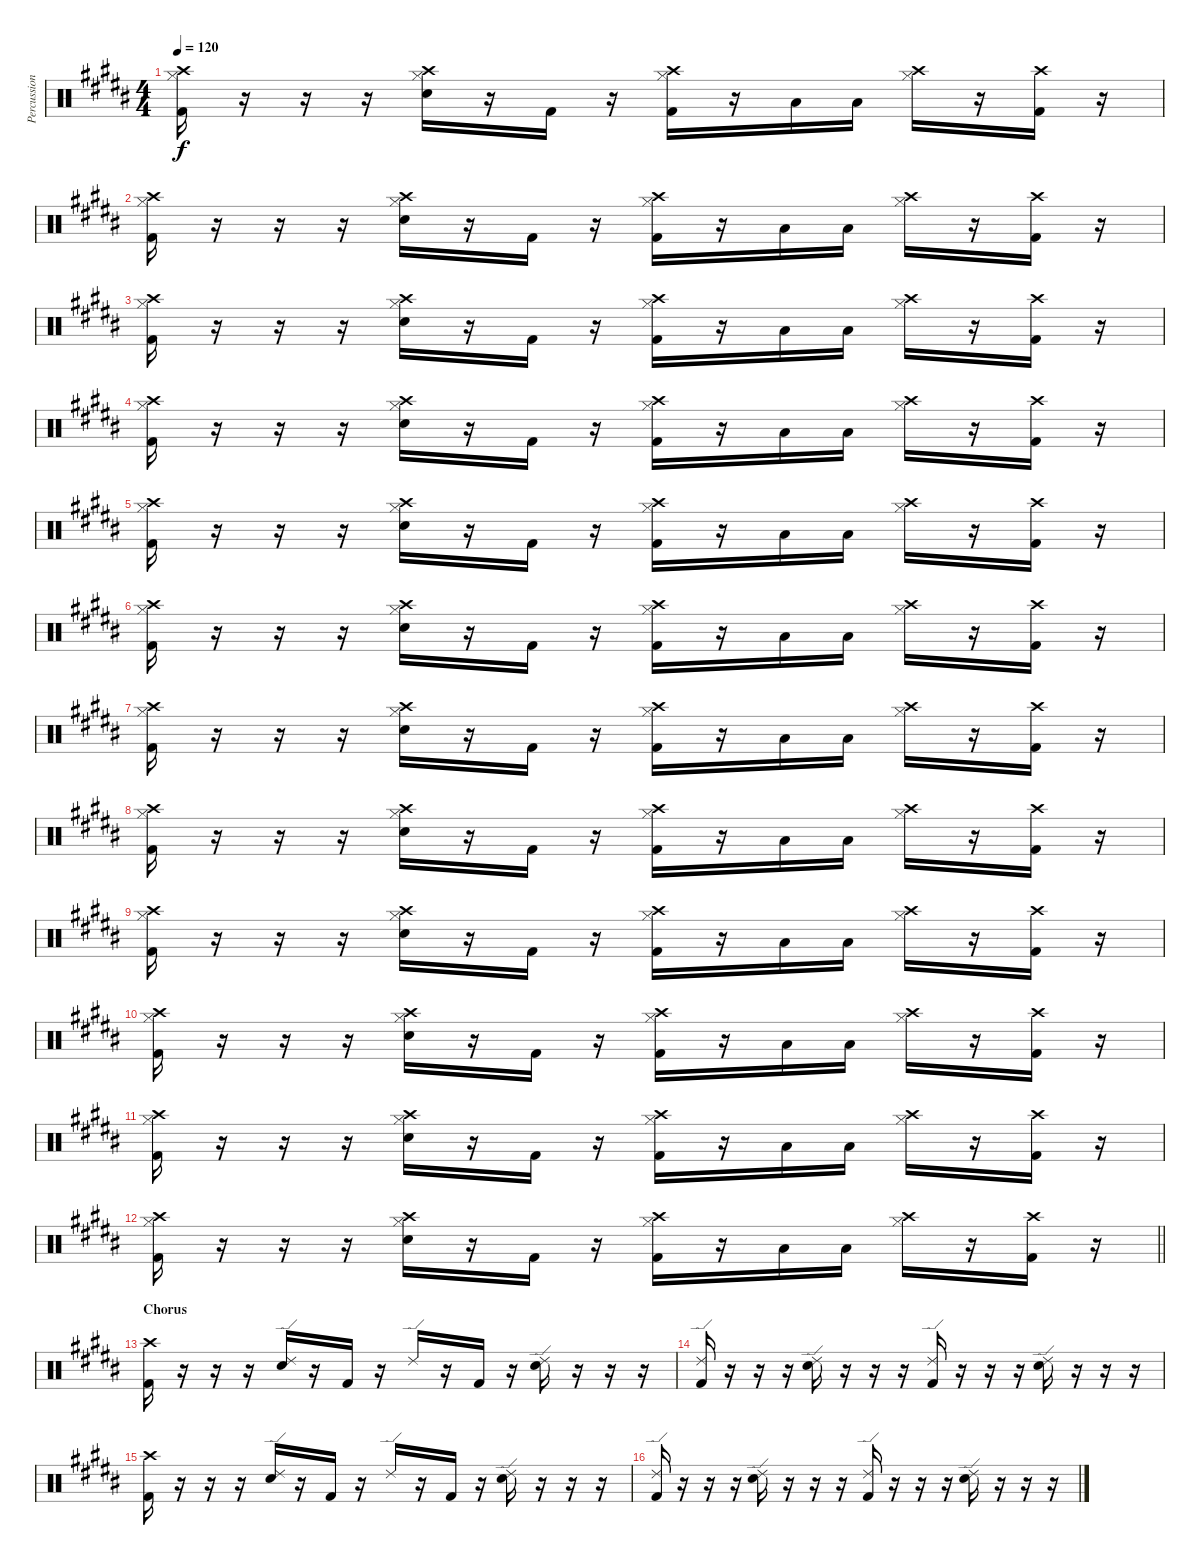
\track ("Percussion" "Percussion") {instrument percussion}
\staff {score}
\articulation defaults
\ts (4 4)
\tempo 120
\clef neutral
\ks b
("Crash high (hit)" "Hi-Hat (closed)" "Kick (hit) 2").16{dy f} r.16 r.16 r.16 ("Crash high (hit)" "Hi-Hat (closed)" "Electric Snare (hit)").16 r.16 "Kick (hit) 2".16 r.16 ("Crash high (hit)" "Hi-Hat (closed)" "Kick (hit) 2").16 r.16 "Low Tom (hit)".16 "Low Tom (hit)".16 ("Crash high (hit)" "Hi-Hat (closed)").16 r.16 ("Crash high (hit)" "Kick (hit) 2").16 r.16 |
("Crash high (hit)" "Hi-Hat (closed)" "Kick (hit) 2").16 r.16 r.16 r.16 ("Crash high (hit)" "Hi-Hat (closed)" "Electric Snare (hit)").16 r.16 "Kick (hit) 2".16 r.16 ("Crash high (hit)" "Hi-Hat (closed)" "Kick (hit) 2").16 r.16 "Low Tom (hit)".16 "Low Tom (hit)".16 ("Crash high (hit)" "Hi-Hat (closed)").16 r.16 ("Crash high (hit)" "Kick (hit) 2").16 r.16 |
("Crash high (hit)" "Hi-Hat (closed)" "Kick (hit) 2").16 r.16 r.16 r.16 ("Crash high (hit)" "Hi-Hat (closed)" "Electric Snare (hit)").16 r.16 "Kick (hit) 2".16 r.16 ("Crash high (hit)" "Hi-Hat (closed)" "Kick (hit) 2").16 r.16 "Low Tom (hit)".16 "Low Tom (hit)".16 ("Crash high (hit)" "Hi-Hat (closed)").16 r.16 ("Crash high (hit)" "Kick (hit) 2").16 r.16 |
("Crash high (hit)" "Hi-Hat (closed)" "Kick (hit) 2").16 r.16 r.16 r.16 ("Crash high (hit)" "Hi-Hat (closed)" "Electric Snare (hit)").16 r.16 "Kick (hit) 2".16 r.16 ("Crash high (hit)" "Hi-Hat (closed)" "Kick (hit) 2").16 r.16 "Low Tom (hit)".16 "Low Tom (hit)".16 ("Crash high (hit)" "Hi-Hat (closed)").16 r.16 ("Crash high (hit)" "Kick (hit) 2").16 r.16 |
("Crash high (hit)" "Hi-Hat (closed)" "Kick (hit) 2").16 r.16 r.16 r.16 ("Crash high (hit)" "Hi-Hat (closed)" "Electric Snare (hit)").16 r.16 "Kick (hit) 2".16 r.16 ("Crash high (hit)" "Hi-Hat (closed)" "Kick (hit) 2").16 r.16 "Low Tom (hit)".16 "Low Tom (hit)".16 ("Crash high (hit)" "Hi-Hat (closed)").16 r.16 ("Crash high (hit)" "Kick (hit) 2").16 r.16 |
("Crash high (hit)" "Hi-Hat (closed)" "Kick (hit) 2").16 r.16 r.16 r.16 ("Crash high (hit)" "Hi-Hat (closed)" "Electric Snare (hit)").16 r.16 "Kick (hit) 2".16 r.16 ("Crash high (hit)" "Hi-Hat (closed)" "Kick (hit) 2").16 r.16 "Low Tom (hit)".16 "Low Tom (hit)".16 ("Crash high (hit)" "Hi-Hat (closed)").16 r.16 ("Crash high (hit)" "Kick (hit) 2").16 r.16 |
("Crash high (hit)" "Hi-Hat (closed)" "Kick (hit) 2").16 r.16 r.16 r.16 ("Crash high (hit)" "Hi-Hat (closed)" "Electric Snare (hit)").16 r.16 "Kick (hit) 2".16 r.16 ("Crash high (hit)" "Hi-Hat (closed)" "Kick (hit) 2").16 r.16 "Low Tom (hit)".16 "Low Tom (hit)".16 ("Crash high (hit)" "Hi-Hat (closed)").16 r.16 ("Crash high (hit)" "Kick (hit) 2").16 r.16 |
("Crash high (hit)" "Hi-Hat (closed)" "Kick (hit) 2").16 r.16 r.16 r.16 ("Crash high (hit)" "Hi-Hat (closed)" "Electric Snare (hit)").16 r.16 "Kick (hit) 2".16 r.16 ("Crash high (hit)" "Hi-Hat (closed)" "Kick (hit) 2").16 r.16 "Low Tom (hit)".16 "Low Tom (hit)".16 ("Crash high (hit)" "Hi-Hat (closed)").16 r.16 ("Crash high (hit)" "Kick (hit) 2").16 r.16 |
("Crash high (hit)" "Hi-Hat (closed)" "Kick (hit) 2").16 r.16 r.16 r.16 ("Crash high (hit)" "Hi-Hat (closed)" "Electric Snare (hit)").16 r.16 "Kick (hit) 2".16 r.16 ("Crash high (hit)" "Hi-Hat (closed)" "Kick (hit) 2").16 r.16 "Low Tom (hit)".16 "Low Tom (hit)".16 ("Crash high (hit)" "Hi-Hat (closed)").16 r.16 ("Crash high (hit)" "Kick (hit) 2").16 r.16 |
("Crash high (hit)" "Hi-Hat (closed)" "Kick (hit) 2").16 r.16 r.16 r.16 ("Crash high (hit)" "Hi-Hat (closed)" "Electric Snare (hit)").16 r.16 "Kick (hit) 2".16 r.16 ("Crash high (hit)" "Hi-Hat (closed)" "Kick (hit) 2").16 r.16 "Low Tom (hit)".16 "Low Tom (hit)".16 ("Crash high (hit)" "Hi-Hat (closed)").16 r.16 ("Crash high (hit)" "Kick (hit) 2").16 r.16 |
("Crash high (hit)" "Hi-Hat (closed)" "Kick (hit) 2").16 r.16 r.16 r.16 ("Crash high (hit)" "Hi-Hat (closed)" "Electric Snare (hit)").16 r.16 "Kick (hit) 2".16 r.16 ("Crash high (hit)" "Hi-Hat (closed)" "Kick (hit) 2").16 r.16 "Low Tom (hit)".16 "Low Tom (hit)".16 ("Crash high (hit)" "Hi-Hat (closed)").16 r.16 ("Crash high (hit)" "Kick (hit) 2").16 r.16 |
\barLineRight lightlight
("Crash high (hit)" "Hi-Hat (closed)" "Kick (hit) 2").16 r.16 r.16 r.16 ("Crash high (hit)" "Hi-Hat (closed)" "Electric Snare (hit)").16 r.16 "Kick (hit) 2".16 r.16 ("Crash high (hit)" "Hi-Hat (closed)" "Kick (hit) 2").16 r.16 "Low Tom (hit)".16 "Low Tom (hit)".16 ("Crash high (hit)" "Hi-Hat (closed)").16 r.16 ("Crash high (hit)" "Kick (hit) 2").16 r.16 |
\section ("" "Chorus")
("Crash high (hit)" "Kick (hit) 2").16 r.16 r.16 r.16 ("Ride (edge) 2" "Electric Snare (hit)").16 r.16 "Kick (hit) 2".16 r.16 "Ride (edge) 2".16 r.16 "Kick (hit) 2".16 r.16 ("Ride (edge) 2" "Electric Snare (hit)").16 r.16 r.16 r.16 |
("Ride (edge) 2" "Kick (hit) 2").16 r.16 r.16 r.16 ("Ride (edge) 2" "Electric Snare (hit)").16 r.16 r.16 r.16 ("Ride (edge) 2" "Kick (hit) 2").16 r.16 r.16 r.16 ("Ride (edge) 2" "Electric Snare (hit)").16 r.16 r.16 r.16 |
("Crash high (hit)" "Kick (hit) 2").16 r.16 r.16 r.16 ("Ride (edge) 2" "Electric Snare (hit)").16 r.16 "Kick (hit) 2".16 r.16 "Ride (edge) 2".16 r.16 "Kick (hit) 2".16 r.16 ("Ride (edge) 2" "Electric Snare (hit)").16 r.16 r.16 r.16 |
("Ride (edge) 2" "Kick (hit) 2").16 r.16 r.16 r.16 ("Ride (edge) 2" "Electric Snare (hit)").16 r.16 r.16 r.16 ("Ride (edge) 2" "Kick (hit) 2").16 r.16 r.16 r.16 ("Ride (edge) 2" "Electric Snare (hit)").16 r.16 r.16 r.16
